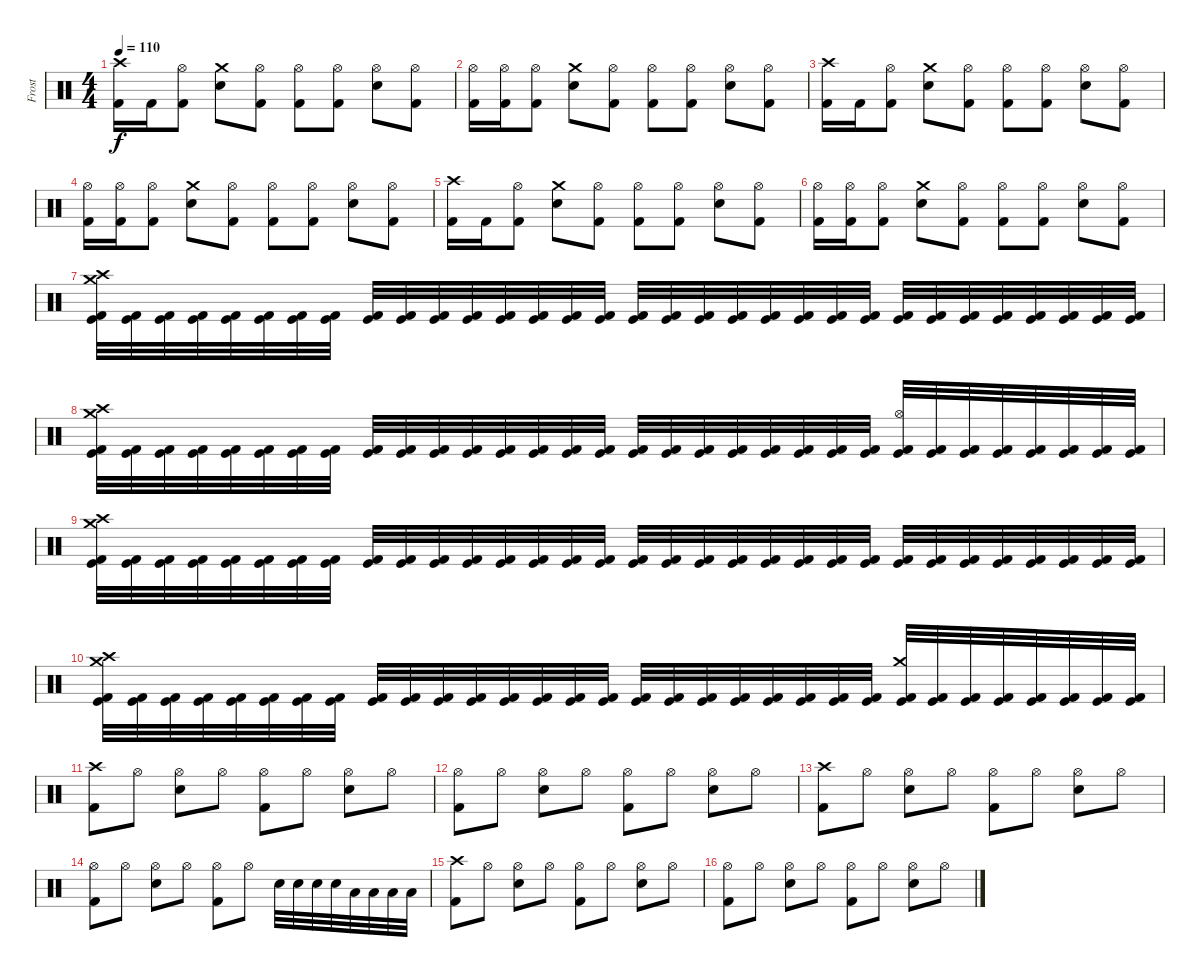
\track ("Frost" "Frost") {instrument percussion}
\staff {score}
\articulation defaults
\ts (4 4)
\tempo 110
\clef neutral
\ks c
("Crash high (hit)" "Kick (hit) 2").16{dy f} "Kick (hit) 2".16 ("Hi-Hat (open)" "Kick (hit) 2").8 ("Crash medium (hit)" "Snare (hit) 2").8 ("Hi-Hat (open)" "Kick (hit) 2").8 ("Hi-Hat (open)" "Kick (hit) 2").8 ("Hi-Hat (open)" "Kick (hit) 2").8 ("Hi-Hat (open)" "Snare (hit) 2").8 ("Hi-Hat (open)" "Kick (hit) 2").8 |
("Hi-Hat (open)" "Kick (hit) 2").16 ("Hi-Hat (open)" "Kick (hit) 2").16 ("Hi-Hat (open)" "Kick (hit) 2").8 ("Crash medium (hit)" "Snare (hit) 2").8 ("Hi-Hat (open)" "Kick (hit) 2").8 ("Hi-Hat (open)" "Kick (hit) 2").8 ("Hi-Hat (open)" "Kick (hit) 2").8 ("Hi-Hat (open)" "Snare (hit) 2").8 ("Hi-Hat (open)" "Kick (hit) 2").8 |
("Crash high (hit)" "Kick (hit) 2").16 "Kick (hit) 2".16 ("Hi-Hat (open)" "Kick (hit) 2").8 ("Crash medium (hit)" "Snare (hit) 2").8 ("Hi-Hat (open)" "Kick (hit) 2").8 ("Hi-Hat (open)" "Kick (hit) 2").8 ("Hi-Hat (open)" "Kick (hit) 2").8 ("Hi-Hat (open)" "Snare (hit) 2").8 ("Hi-Hat (open)" "Kick (hit) 2").8 |
("Hi-Hat (open)" "Kick (hit) 2").16 ("Hi-Hat (open)" "Kick (hit) 2").16 ("Hi-Hat (open)" "Kick (hit) 2").8 ("Crash medium (hit)" "Snare (hit) 2").8 ("Hi-Hat (open)" "Kick (hit) 2").8 ("Hi-Hat (open)" "Kick (hit) 2").8 ("Hi-Hat (open)" "Kick (hit) 2").8 ("Hi-Hat (open)" "Snare (hit) 2").8 ("Hi-Hat (open)" "Kick (hit) 2").8 |
("Crash high (hit)" "Kick (hit) 2").16 "Kick (hit) 2".16 ("Hi-Hat (open)" "Kick (hit) 2").8 ("Crash medium (hit)" "Snare (hit) 2").8 ("Hi-Hat (open)" "Kick (hit) 2").8 ("Hi-Hat (open)" "Kick (hit) 2").8 ("Hi-Hat (open)" "Kick (hit) 2").8 ("Hi-Hat (open)" "Snare (hit) 2").8 ("Hi-Hat (open)" "Kick (hit) 2").8 |
("Hi-Hat (open)" "Kick (hit) 2").16 ("Hi-Hat (open)" "Kick (hit) 2").16 ("Hi-Hat (open)" "Kick (hit) 2").8 ("Crash medium (hit)" "Snare (hit) 2").8 ("Hi-Hat (open)" "Kick (hit) 2").8 ("Hi-Hat (open)" "Kick (hit) 2").8 ("Hi-Hat (open)" "Kick (hit) 2").8 ("Hi-Hat (open)" "Snare (hit) 2").8 ("Hi-Hat (open)" "Kick (hit) 2").8 |
("Crash medium (hit)" "Crash high (hit)" "Kick (hit)" "Kick (hit) 2").32 ("Kick (hit)" "Kick (hit) 2").32 ("Kick (hit)" "Kick (hit) 2").32 ("Kick (hit)" "Kick (hit) 2").32 ("Kick (hit)" "Kick (hit) 2").32 ("Kick (hit)" "Kick (hit) 2").32 ("Kick (hit)" "Kick (hit) 2").32 ("Kick (hit)" "Kick (hit) 2").32 ("Kick (hit)" "Kick (hit) 2").32 ("Kick (hit)" "Kick (hit) 2").32 ("Kick (hit)" "Kick (hit) 2").32 ("Kick (hit)" "Kick (hit) 2").32 ("Kick (hit)" "Kick (hit) 2").32 ("Kick (hit)" "Kick (hit) 2").32 ("Kick (hit)" "Kick (hit) 2").32 ("Kick (hit)" "Kick (hit) 2").32 ("Kick (hit)" "Kick (hit) 2").32 ("Kick (hit)" "Kick (hit) 2").32 ("Kick (hit)" "Kick (hit) 2").32 ("Kick (hit)" "Kick (hit) 2").32 ("Kick (hit)" "Kick (hit) 2").32 ("Kick (hit)" "Kick (hit) 2").32 ("Kick (hit)" "Kick (hit) 2").32 ("Kick (hit)" "Kick (hit) 2").32 ("Kick (hit)" "Kick (hit) 2").32 ("Kick (hit)" "Kick (hit) 2").32 ("Kick (hit)" "Kick (hit) 2").32 ("Kick (hit)" "Kick (hit) 2").32 ("Kick (hit)" "Kick (hit) 2").32 ("Kick (hit)" "Kick (hit) 2").32 ("Kick (hit)" "Kick (hit) 2").32 ("Kick (hit)" "Kick (hit) 2").32 |
("Crash medium (hit)" "Crash high (hit)" "Kick (hit)" "Kick (hit) 2").32 ("Kick (hit)" "Kick (hit) 2").32 ("Kick (hit)" "Kick (hit) 2").32 ("Kick (hit)" "Kick (hit) 2").32 ("Kick (hit)" "Kick (hit) 2").32 ("Kick (hit)" "Kick (hit) 2").32 ("Kick (hit)" "Kick (hit) 2").32 ("Kick (hit)" "Kick (hit) 2").32 ("Kick (hit)" "Kick (hit) 2").32 ("Kick (hit)" "Kick (hit) 2").32 ("Kick (hit)" "Kick (hit) 2").32 ("Kick (hit)" "Kick (hit) 2").32 ("Kick (hit)" "Kick (hit) 2").32 ("Kick (hit)" "Kick (hit) 2").32 ("Kick (hit)" "Kick (hit) 2").32 ("Kick (hit)" "Kick (hit) 2").32 ("Kick (hit)" "Kick (hit) 2").32 ("Kick (hit)" "Kick (hit) 2").32 ("Kick (hit)" "Kick (hit) 2").32 ("Kick (hit)" "Kick (hit) 2").32 ("Kick (hit)" "Kick (hit) 2").32 ("Kick (hit)" "Kick (hit) 2").32 ("Kick (hit)" "Kick (hit) 2").32 ("Kick (hit)" "Kick (hit) 2").32 ("Hi-Hat (open)" "Kick (hit)" "Kick (hit) 2").32 ("Kick (hit)" "Kick (hit) 2").32 ("Kick (hit)" "Kick (hit) 2").32 ("Kick (hit)" "Kick (hit) 2").32 ("Kick (hit)" "Kick (hit) 2").32 ("Kick (hit)" "Kick (hit) 2").32 ("Kick (hit)" "Kick (hit) 2").32 ("Kick (hit)" "Kick (hit) 2").32 |
("Crash medium (hit)" "Crash high (hit)" "Kick (hit)" "Kick (hit) 2").32 ("Kick (hit)" "Kick (hit) 2").32 ("Kick (hit)" "Kick (hit) 2").32 ("Kick (hit)" "Kick (hit) 2").32 ("Kick (hit)" "Kick (hit) 2").32 ("Kick (hit)" "Kick (hit) 2").32 ("Kick (hit)" "Kick (hit) 2").32 ("Kick (hit)" "Kick (hit) 2").32 ("Kick (hit)" "Kick (hit) 2").32 ("Kick (hit)" "Kick (hit) 2").32 ("Kick (hit)" "Kick (hit) 2").32 ("Kick (hit)" "Kick (hit) 2").32 ("Kick (hit)" "Kick (hit) 2").32 ("Kick (hit)" "Kick (hit) 2").32 ("Kick (hit)" "Kick (hit) 2").32 ("Kick (hit)" "Kick (hit) 2").32 ("Kick (hit)" "Kick (hit) 2").32 ("Kick (hit)" "Kick (hit) 2").32 ("Kick (hit)" "Kick (hit) 2").32 ("Kick (hit)" "Kick (hit) 2").32 ("Kick (hit)" "Kick (hit) 2").32 ("Kick (hit)" "Kick (hit) 2").32 ("Kick (hit)" "Kick (hit) 2").32 ("Kick (hit)" "Kick (hit) 2").32 ("Kick (hit)" "Kick (hit) 2").32 ("Kick (hit)" "Kick (hit) 2").32 ("Kick (hit)" "Kick (hit) 2").32 ("Kick (hit)" "Kick (hit) 2").32 ("Kick (hit)" "Kick (hit) 2").32 ("Kick (hit)" "Kick (hit) 2").32 ("Kick (hit)" "Kick (hit) 2").32 ("Kick (hit)" "Kick (hit) 2").32 |
("Crash medium (hit)" "Crash high (hit)" "Kick (hit)" "Kick (hit) 2").32 ("Kick (hit)" "Kick (hit) 2").32 ("Kick (hit)" "Kick (hit) 2").32 ("Kick (hit)" "Kick (hit) 2").32 ("Kick (hit)" "Kick (hit) 2").32 ("Kick (hit)" "Kick (hit) 2").32 ("Kick (hit)" "Kick (hit) 2").32 ("Kick (hit)" "Kick (hit) 2").32 ("Kick (hit)" "Kick (hit) 2").32 ("Kick (hit)" "Kick (hit) 2").32 ("Kick (hit)" "Kick (hit) 2").32 ("Kick (hit)" "Kick (hit) 2").32 ("Kick (hit)" "Kick (hit) 2").32 ("Kick (hit)" "Kick (hit) 2").32 ("Kick (hit)" "Kick (hit) 2").32 ("Kick (hit)" "Kick (hit) 2").32 ("Kick (hit)" "Kick (hit) 2").32 ("Kick (hit)" "Kick (hit) 2").32 ("Kick (hit)" "Kick (hit) 2").32 ("Kick (hit)" "Kick (hit) 2").32 ("Kick (hit)" "Kick (hit) 2").32 ("Kick (hit)" "Kick (hit) 2").32 ("Kick (hit)" "Kick (hit) 2").32 ("Kick (hit)" "Kick (hit) 2").32 ("Crash medium (hit)" "Kick (hit)" "Kick (hit) 2").32 ("Kick (hit)" "Kick (hit) 2").32 ("Kick (hit)" "Kick (hit) 2").32 ("Kick (hit)" "Kick (hit) 2").32 ("Kick (hit)" "Kick (hit) 2").32 ("Kick (hit)" "Kick (hit) 2").32 ("Kick (hit)" "Kick (hit) 2").32 ("Kick (hit)" "Kick (hit) 2").32 |
("Crash high (hit)" "Kick (hit) 2").8 "Hi-Hat (open)".8 ("Hi-Hat (open)" "Snare (hit) 2").8 "Hi-Hat (open)".8 ("Hi-Hat (open)" "Kick (hit) 2").8 "Hi-Hat (open)".8 ("Hi-Hat (open)" "Snare (hit) 2").8 "Hi-Hat (open)".8 |
("Hi-Hat (open)" "Kick (hit) 2").8 "Hi-Hat (open)".8 ("Hi-Hat (open)" "Snare (hit) 2").8 "Hi-Hat (open)".8 ("Hi-Hat (open)" "Kick (hit) 2").8 "Hi-Hat (open)".8 ("Hi-Hat (open)" "Snare (hit) 2").8 "Hi-Hat (open)".8 |
("Crash high (hit)" "Kick (hit) 2").8 "Hi-Hat (open)".8 ("Hi-Hat (open)" "Snare (hit) 2").8 "Hi-Hat (open)".8 ("Hi-Hat (open)" "Kick (hit) 2").8 "Hi-Hat (open)".8 ("Hi-Hat (open)" "Snare (hit) 2").8 "Hi-Hat (open)".8 |
("Hi-Hat (open)" "Kick (hit) 2").8 "Hi-Hat (open)".8 ("Hi-Hat (open)" "Snare (hit) 2").8 "Hi-Hat (open)".8 ("Hi-Hat (open)" "Kick (hit) 2").8 "Hi-Hat (open)".8 "Snare (hit) 2".32 "Snare (hit) 2".32 "Snare (hit) 2".32 "Snare (hit) 2".32 "Low Tom (hit)".32 "Low Tom (hit)".32 "Low Tom (hit)".32 "Low Tom (hit)".32 |
("Crash high (hit)" "Kick (hit) 2").8 "Hi-Hat (open)".8 ("Hi-Hat (open)" "Snare (hit) 2").8 "Hi-Hat (open)".8 ("Hi-Hat (open)" "Kick (hit) 2").8 "Hi-Hat (open)".8 ("Hi-Hat (open)" "Snare (hit) 2").8 "Hi-Hat (open)".8 |
("Hi-Hat (open)" "Kick (hit) 2").8 "Hi-Hat (open)".8 ("Hi-Hat (open)" "Snare (hit) 2").8 "Hi-Hat (open)".8 ("Hi-Hat (open)" "Kick (hit) 2").8 "Hi-Hat (open)".8 ("Hi-Hat (open)" "Snare (hit) 2").8 "Hi-Hat (open)".8
